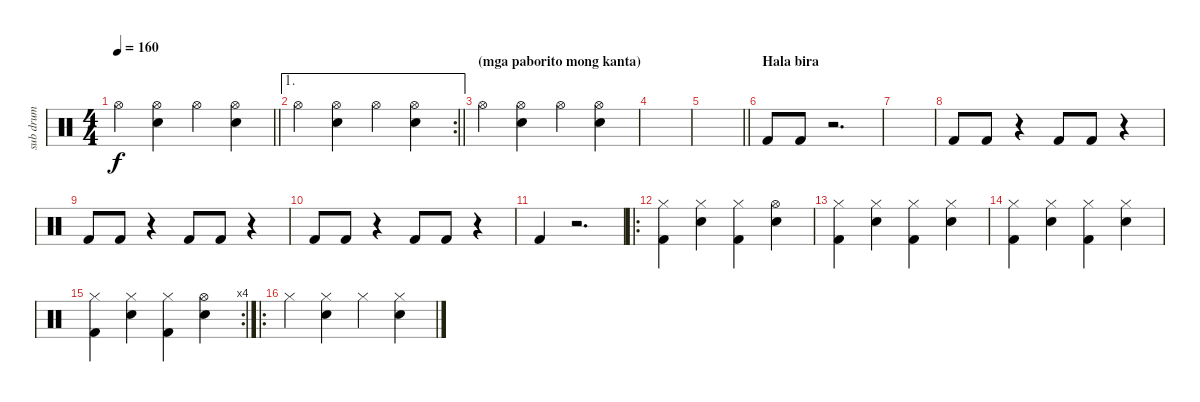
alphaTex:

\track ("sub drum" "sub drum") {instrument percussion}
\staff {score}
\articulation defaults
\ts (4 4)
\tempo 160
\clef neutral
\barLineRight lightlight
\ks c "Hi-Hat (open)".4{dy f}
("Hi-Hat (open)" "Snare (hit) 2").4 "Hi-Hat (open)".4 ("Hi-Hat (open)" "Snare (hit) 2").4 |
\ae 1
\rc 2
\section ("" "")
\barLineRight lightlight "Hi-Hat (open)".4
("Hi-Hat (open)" "Snare (hit) 2").4 "Hi-Hat (open)".4 ("Hi-Hat (open)" "Snare (hit) 2").4 |
\section ("" "(mga paborito mong kanta)")
"Hi-Hat (open)".4 ("Hi-Hat (open)" "Snare (hit) 2").4 "Hi-Hat (open)".4 ("Hi-Hat (open)" "Snare (hit) 2").4 |
|
\barLineRight lightlight
|
\section ("" "Hala bira")
"Kick (hit) 2".8 "Kick (hit) 2".8 r.2{d} |
|
"Kick (hit) 2".8 "Kick (hit) 2".8 r.4 "Kick (hit) 2".8 "Kick (hit) 2".8 r.4 |
"Kick (hit) 2".8 "Kick (hit) 2".8 r.4 "Kick (hit) 2".8 "Kick (hit) 2".8 r.4 |
"Kick (hit) 2".8 "Kick (hit) 2".8 r.4 "Kick (hit) 2".8 "Kick (hit) 2".8 r.4 |
"Kick (hit) 2".4 r.2{d} |
\ro
("Hi-Hat (closed)" "Kick (hit) 2").4 ("Hi-Hat (closed)" "Snare (hit) 2").4 ("Hi-Hat (closed)" "Kick (hit) 2").4 ("Hi-Hat (open)" "Snare (hit) 2").4 |
("Hi-Hat (closed)" "Kick (hit) 2").4 ("Hi-Hat (closed)" "Snare (hit) 2").4 ("Hi-Hat (closed)" "Kick (hit) 2").4 ("Hi-Hat (closed)" "Snare (hit) 2").4 |
("Hi-Hat (closed)" "Kick (hit) 2").4 ("Hi-Hat (closed)" "Snare (hit) 2").4 ("Hi-Hat (closed)" "Kick (hit) 2").4 ("Hi-Hat (closed)" "Snare (hit) 2").4 |
\rc 4
("Hi-Hat (closed)" "Kick (hit) 2").4 ("Hi-Hat (closed)" "Snare (hit) 2").4 ("Hi-Hat (closed)" "Kick (hit) 2").4 ("Hi-Hat (open)" "Snare (hit) 2").4 |
\ro "Hi-Hat (closed)".4
("Hi-Hat (closed)" "Snare (hit) 2").4 "Hi-Hat (closed)".4 ("Hi-Hat (closed)" "Snare (hit) 2").4
